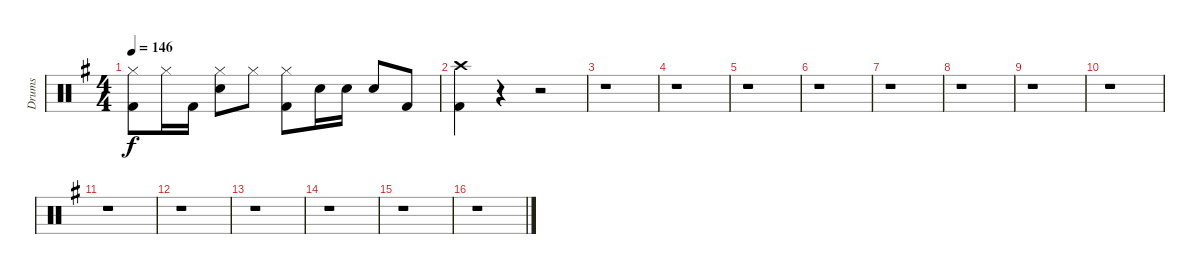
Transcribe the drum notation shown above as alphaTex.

\track ("Drums" "Drums") {instrument percussion}
\staff {score}
\articulation defaults
\ts (4 4)
\tempo 146
\clef neutral
\ks g
("Kick (hit) 2" "Hi-Hat (closed)").8{dy f} "Hi-Hat (closed)".16 "Kick (hit) 2".16 ("Snare (hit) 2" "Hi-Hat (closed)").8 "Hi-Hat (closed)".8 ("Kick (hit) 2" "Hi-Hat (closed)").8 "Snare (hit) 2".16 "Snare (hit) 2".16 "Snare (hit) 2".8 "Kick (hit) 2".8 |
("Kick (hit) 2" "Crash high (hit)").4 r.4 r.2 |
r.1 |
r.1 |
r.1 |
r.1 |
r.1 |
r.1 |
r.1 |
r.1 |
r.1 |
r.1 |
r.1 |
r.1 |
r.1 |
r.1
